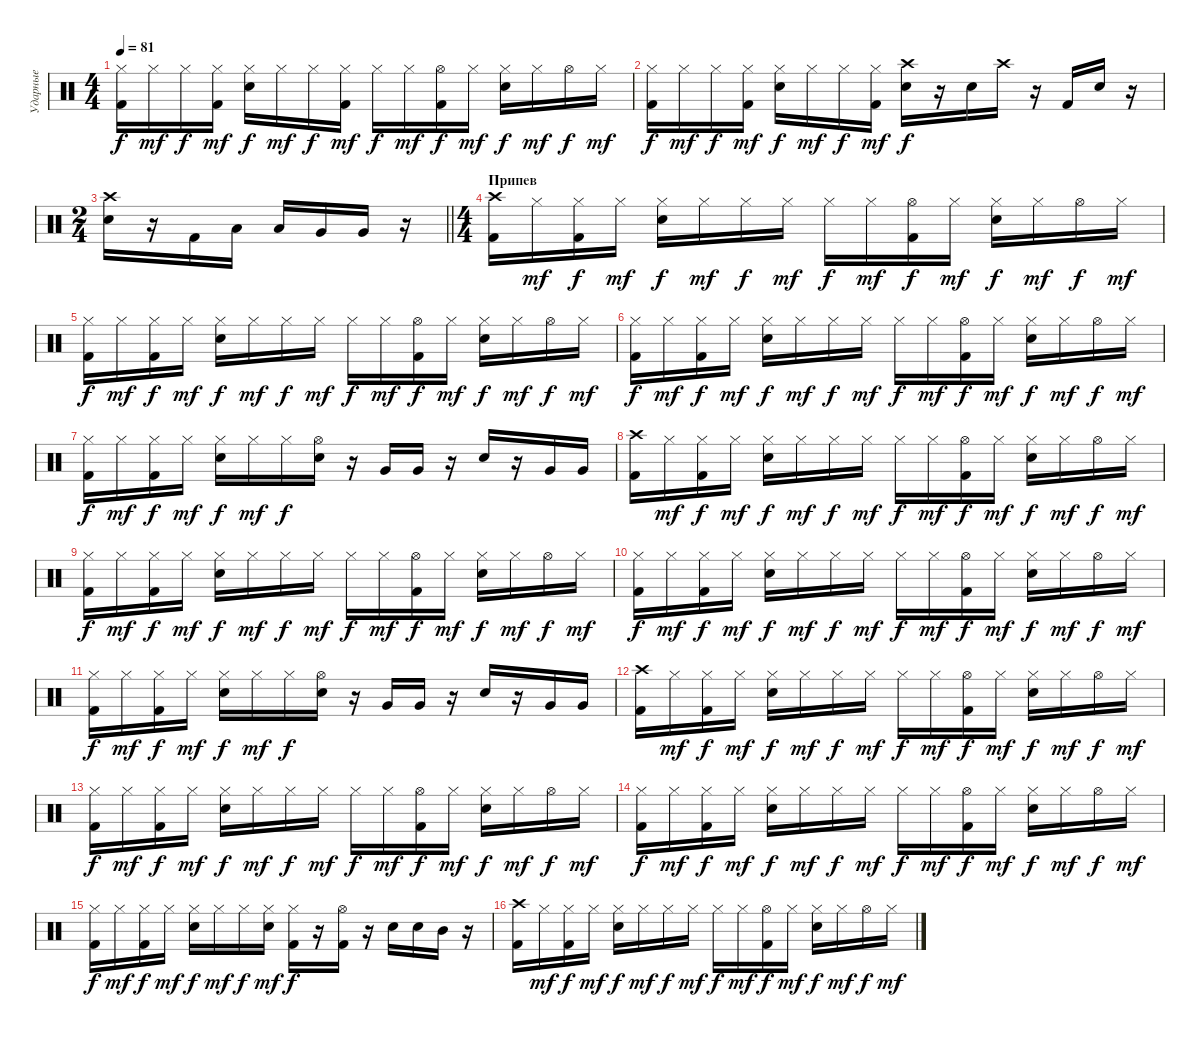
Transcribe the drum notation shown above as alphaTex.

\track ("Ударные" "Ударные") {instrument percussion}
\staff {score}
\articulation defaults
\ts (4 4)
\tempo 81
\clef neutral
\ks c
("Hi-Hat (closed)" "Kick (hit) 2").16{dy f} "Hi-Hat (closed)".16{dy mf} "Hi-Hat (closed)".16{dy f} ("Hi-Hat (closed)" "Kick (hit) 2").16{dy mf} ("Hi-Hat (closed)" "Electric Snare (hit)").16{dy f} "Hi-Hat (closed)".16{dy mf} "Hi-Hat (closed)".16{dy f} ("Hi-Hat (closed)" "Kick (hit) 2").16{dy mf} "Hi-Hat (closed)".16{dy f} "Hi-Hat (closed)".16{dy mf} ("Hi-Hat (open)" "Kick (hit) 2").16{dy f} "Hi-Hat (closed)".16{dy mf} ("Hi-Hat (closed)" "Electric Snare (hit)").16{dy f} "Hi-Hat (closed)".16{dy mf} "Hi-Hat (open)".16{dy f} "Hi-Hat (closed)".16{dy mf} |
("Hi-Hat (closed)" "Kick (hit) 2").16{dy f} "Hi-Hat (closed)".16{dy mf} "Hi-Hat (closed)".16{dy f} ("Hi-Hat (closed)" "Kick (hit) 2").16{dy mf} ("Hi-Hat (closed)" "Electric Snare (hit)").16{dy f} "Hi-Hat (closed)".16{dy mf} "Hi-Hat (closed)".16{dy f} ("Hi-Hat (closed)" "Kick (hit) 2").16{dy mf} ("Crash high (hit)" "Electric Snare (hit)").16{dy f} r.16 "Electric Snare (hit)".16 "Crash high (hit)".16 r.16 "Kick (hit) 2".16 "Electric Snare (hit)".16 r.16 |
\ts (2 4)
\barLineRight lightlight
("Crash high (hit)" "Electric Snare (hit)").16 r.16 "Kick (hit) 2".16 "Low Tom (hit)".16 "Low Tom (hit)".16 "Very Low Tom (hit)".16 "Very Low Tom (hit)".16 r.16 |
\ts (4 4)
\section ("" "Припев")
("Crash high (hit)" "Kick (hit) 2").16 "Hi-Hat (closed)".16{dy mf} ("Hi-Hat (closed)" "Kick (hit) 2").16{dy f} "Hi-Hat (closed)".16{dy mf} ("Hi-Hat (closed)" "Electric Snare (hit)").16{dy f} "Hi-Hat (closed)".16{dy mf} "Hi-Hat (closed)".16{dy f} "Hi-Hat (closed)".16{dy mf} "Hi-Hat (closed)".16{dy f} "Hi-Hat (closed)".16{dy mf} ("Hi-Hat (open)" "Kick (hit) 2").16{dy f} "Hi-Hat (closed)".16{dy mf} ("Hi-Hat (closed)" "Electric Snare (hit)").16{dy f} "Hi-Hat (closed)".16{dy mf} "Hi-Hat (open)".16{dy f} "Hi-Hat (closed)".16{dy mf} |
("Hi-Hat (closed)" "Kick (hit) 2").16{dy f} "Hi-Hat (closed)".16{dy mf} ("Hi-Hat (closed)" "Kick (hit) 2").16{dy f} "Hi-Hat (closed)".16{dy mf} ("Hi-Hat (closed)" "Electric Snare (hit)").16{dy f} "Hi-Hat (closed)".16{dy mf} "Hi-Hat (closed)".16{dy f} "Hi-Hat (closed)".16{dy mf} "Hi-Hat (closed)".16{dy f} "Hi-Hat (closed)".16{dy mf} ("Hi-Hat (open)" "Kick (hit) 2").16{dy f} "Hi-Hat (closed)".16{dy mf} ("Hi-Hat (closed)" "Electric Snare (hit)").16{dy f} "Hi-Hat (closed)".16{dy mf} "Hi-Hat (open)".16{dy f} "Hi-Hat (closed)".16{dy mf} |
("Hi-Hat (closed)" "Kick (hit) 2").16{dy f} "Hi-Hat (closed)".16{dy mf} ("Hi-Hat (closed)" "Kick (hit) 2").16{dy f} "Hi-Hat (closed)".16{dy mf} ("Hi-Hat (closed)" "Electric Snare (hit)").16{dy f} "Hi-Hat (closed)".16{dy mf} "Hi-Hat (closed)".16{dy f} "Hi-Hat (closed)".16{dy mf} "Hi-Hat (closed)".16{dy f} "Hi-Hat (closed)".16{dy mf} ("Hi-Hat (open)" "Kick (hit) 2").16{dy f} "Hi-Hat (closed)".16{dy mf} ("Hi-Hat (closed)" "Electric Snare (hit)").16{dy f} "Hi-Hat (closed)".16{dy mf} "Hi-Hat (open)".16{dy f} "Hi-Hat (closed)".16{dy mf} |
("Hi-Hat (closed)" "Kick (hit) 2").16{dy f} "Hi-Hat (closed)".16{dy mf} ("Hi-Hat (closed)" "Kick (hit) 2").16{dy f} "Hi-Hat (closed)".16{dy mf} ("Hi-Hat (closed)" "Electric Snare (hit)").16{dy f} "Hi-Hat (closed)".16{dy mf} "Hi-Hat (closed)".16{dy f} ("Hi-Hat (open)" "Electric Snare (hit)").16 r.16 "Very Low Tom (hit)".16 "Very Low Tom (hit)".16 r.16 "Electric Snare (hit)".16 r.16 "Very Low Tom (hit)".16 "Very Low Tom (hit)".16 |
("Crash high (hit)" "Kick (hit) 2").16 "Hi-Hat (closed)".16{dy mf} ("Hi-Hat (closed)" "Kick (hit) 2").16{dy f} "Hi-Hat (closed)".16{dy mf} ("Hi-Hat (closed)" "Electric Snare (hit)").16{dy f} "Hi-Hat (closed)".16{dy mf} "Hi-Hat (closed)".16{dy f} "Hi-Hat (closed)".16{dy mf} "Hi-Hat (closed)".16{dy f} "Hi-Hat (closed)".16{dy mf} ("Hi-Hat (open)" "Kick (hit) 2").16{dy f} "Hi-Hat (closed)".16{dy mf} ("Hi-Hat (closed)" "Electric Snare (hit)").16{dy f} "Hi-Hat (closed)".16{dy mf} "Hi-Hat (open)".16{dy f} "Hi-Hat (closed)".16{dy mf} |
("Hi-Hat (closed)" "Kick (hit) 2").16{dy f} "Hi-Hat (closed)".16{dy mf} ("Hi-Hat (closed)" "Kick (hit) 2").16{dy f} "Hi-Hat (closed)".16{dy mf} ("Hi-Hat (closed)" "Electric Snare (hit)").16{dy f} "Hi-Hat (closed)".16{dy mf} "Hi-Hat (closed)".16{dy f} "Hi-Hat (closed)".16{dy mf} "Hi-Hat (closed)".16{dy f} "Hi-Hat (closed)".16{dy mf} ("Hi-Hat (open)" "Kick (hit) 2").16{dy f} "Hi-Hat (closed)".16{dy mf} ("Hi-Hat (closed)" "Electric Snare (hit)").16{dy f} "Hi-Hat (closed)".16{dy mf} "Hi-Hat (open)".16{dy f} "Hi-Hat (closed)".16{dy mf} |
("Hi-Hat (closed)" "Kick (hit) 2").16{dy f} "Hi-Hat (closed)".16{dy mf} ("Hi-Hat (closed)" "Kick (hit) 2").16{dy f} "Hi-Hat (closed)".16{dy mf} ("Hi-Hat (closed)" "Electric Snare (hit)").16{dy f} "Hi-Hat (closed)".16{dy mf} "Hi-Hat (closed)".16{dy f} "Hi-Hat (closed)".16{dy mf} "Hi-Hat (closed)".16{dy f} "Hi-Hat (closed)".16{dy mf} ("Hi-Hat (open)" "Kick (hit) 2").16{dy f} "Hi-Hat (closed)".16{dy mf} ("Hi-Hat (closed)" "Electric Snare (hit)").16{dy f} "Hi-Hat (closed)".16{dy mf} "Hi-Hat (open)".16{dy f} "Hi-Hat (closed)".16{dy mf} |
("Hi-Hat (closed)" "Kick (hit) 2").16{dy f} "Hi-Hat (closed)".16{dy mf} ("Hi-Hat (closed)" "Kick (hit) 2").16{dy f} "Hi-Hat (closed)".16{dy mf} ("Hi-Hat (closed)" "Electric Snare (hit)").16{dy f} "Hi-Hat (closed)".16{dy mf} "Hi-Hat (closed)".16{dy f} ("Hi-Hat (open)" "Electric Snare (hit)").16 r.16 "Very Low Tom (hit)".16 "Very Low Tom (hit)".16 r.16 "Electric Snare (hit)".16 r.16 "Very Low Tom (hit)".16 "Very Low Tom (hit)".16 |
("Crash high (hit)" "Kick (hit) 2").16 "Hi-Hat (closed)".16{dy mf} ("Hi-Hat (closed)" "Kick (hit) 2").16{dy f} "Hi-Hat (closed)".16{dy mf} ("Hi-Hat (closed)" "Electric Snare (hit)").16{dy f} "Hi-Hat (closed)".16{dy mf} "Hi-Hat (closed)".16{dy f} "Hi-Hat (closed)".16{dy mf} "Hi-Hat (closed)".16{dy f} "Hi-Hat (closed)".16{dy mf} ("Hi-Hat (open)" "Kick (hit) 2").16{dy f} "Hi-Hat (closed)".16{dy mf} ("Hi-Hat (closed)" "Electric Snare (hit)").16{dy f} "Hi-Hat (closed)".16{dy mf} "Hi-Hat (open)".16{dy f} "Hi-Hat (closed)".16{dy mf} |
("Hi-Hat (closed)" "Kick (hit) 2").16{dy f} "Hi-Hat (closed)".16{dy mf} ("Hi-Hat (closed)" "Kick (hit) 2").16{dy f} "Hi-Hat (closed)".16{dy mf} ("Hi-Hat (closed)" "Electric Snare (hit)").16{dy f} "Hi-Hat (closed)".16{dy mf} "Hi-Hat (closed)".16{dy f} "Hi-Hat (closed)".16{dy mf} "Hi-Hat (closed)".16{dy f} "Hi-Hat (closed)".16{dy mf} ("Hi-Hat (open)" "Kick (hit) 2").16{dy f} "Hi-Hat (closed)".16{dy mf} ("Hi-Hat (closed)" "Electric Snare (hit)").16{dy f} "Hi-Hat (closed)".16{dy mf} "Hi-Hat (open)".16{dy f} "Hi-Hat (closed)".16{dy mf} |
("Hi-Hat (closed)" "Kick (hit) 2").16{dy f} "Hi-Hat (closed)".16{dy mf} ("Hi-Hat (closed)" "Kick (hit) 2").16{dy f} "Hi-Hat (closed)".16{dy mf} ("Hi-Hat (closed)" "Electric Snare (hit)").16{dy f} "Hi-Hat (closed)".16{dy mf} "Hi-Hat (closed)".16{dy f} "Hi-Hat (closed)".16{dy mf} "Hi-Hat (closed)".16{dy f} "Hi-Hat (closed)".16{dy mf} ("Hi-Hat (open)" "Kick (hit) 2").16{dy f} "Hi-Hat (closed)".16{dy mf} ("Hi-Hat (closed)" "Electric Snare (hit)").16{dy f} "Hi-Hat (closed)".16{dy mf} "Hi-Hat (open)".16{dy f} "Hi-Hat (closed)".16{dy mf} |
("Hi-Hat (closed)" "Kick (hit) 2").16{dy f} "Hi-Hat (closed)".16{dy mf} ("Hi-Hat (closed)" "Kick (hit) 2").16{dy f} "Hi-Hat (closed)".16{dy mf} ("Hi-Hat (closed)" "Electric Snare (hit)").16{dy f} "Hi-Hat (closed)".16{dy mf} "Hi-Hat (closed)".16{dy f} ("Hi-Hat (closed)" "Electric Snare (hit)").16{dy mf} ("Hi-Hat (closed)" "Kick (hit) 2").16{dy f} r.16 ("Hi-Hat (open)" "Kick (hit) 2").16 r.16 "Electric Snare (hit)".16 "Electric Snare (hit)".16 "Mid Tom (hit)".16 r.16 |
("Crash high (hit)" "Kick (hit) 2").16 "Hi-Hat (closed)".16{dy mf} ("Hi-Hat (closed)" "Kick (hit) 2").16{dy f} "Hi-Hat (closed)".16{dy mf} ("Hi-Hat (closed)" "Electric Snare (hit)").16{dy f} "Hi-Hat (closed)".16{dy mf} "Hi-Hat (closed)".16{dy f} "Hi-Hat (closed)".16{dy mf} "Hi-Hat (closed)".16{dy f} "Hi-Hat (closed)".16{dy mf} ("Hi-Hat (open)" "Kick (hit) 2").16{dy f} "Hi-Hat (closed)".16{dy mf} ("Hi-Hat (closed)" "Electric Snare (hit)").16{dy f} "Hi-Hat (closed)".16{dy mf} "Hi-Hat (open)".16{dy f} "Hi-Hat (closed)".16{dy mf}
